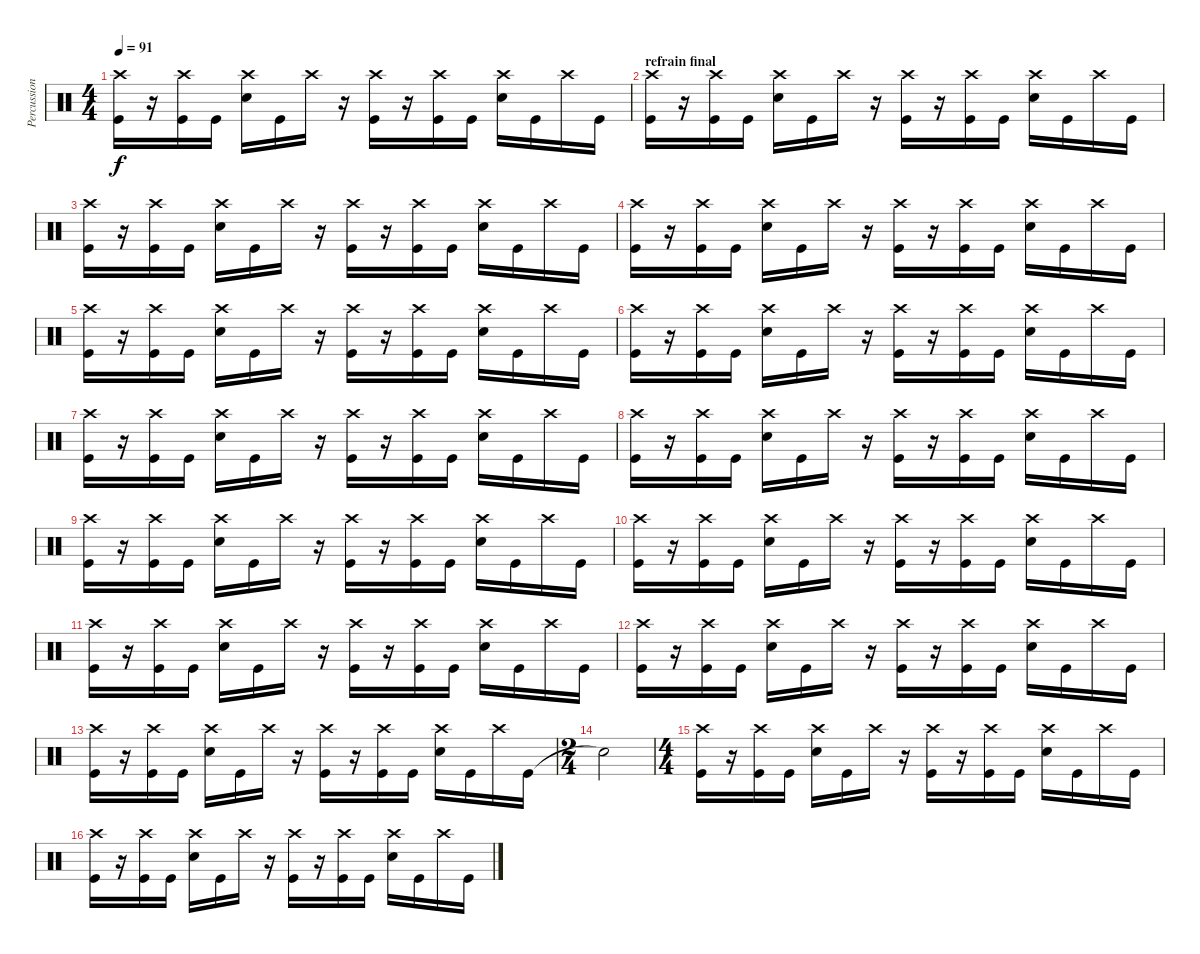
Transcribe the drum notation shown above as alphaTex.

\track ("Percussions (Nejo)" "Percussion") {instrument percussion}
\staff {score}
\articulation defaults
\ts (4 4)
\tempo 91
\clef neutral
\ks c
("Crash high (hit)" "Kick (hit)").16{dy f} r.16 ("Crash high (hit)" "Kick (hit)").16 "Kick (hit)".16 ("Crash high (hit)" "Electric Snare (hit)").16 "Kick (hit)".16 "Crash high (hit)".16 r.16 ("Crash high (hit)" "Kick (hit)").16 r.16 ("Crash high (hit)" "Kick (hit)").16 "Kick (hit)".16 ("Crash high (hit)" "Electric Snare (hit)").16 "Kick (hit)".16 "Crash high (hit)".16 "Kick (hit)".16 |
\section ("" "refrain final")
("Crash high (hit)" "Kick (hit)").16 r.16 ("Crash high (hit)" "Kick (hit)").16 "Kick (hit)".16 ("Crash high (hit)" "Electric Snare (hit)").16 "Kick (hit)".16 "Crash high (hit)".16 r.16 ("Crash high (hit)" "Kick (hit)").16 r.16 ("Crash high (hit)" "Kick (hit)").16 "Kick (hit)".16 ("Crash high (hit)" "Electric Snare (hit)").16 "Kick (hit)".16 "Crash high (hit)".16 "Kick (hit)".16 |
("Crash high (hit)" "Kick (hit)").16 r.16 ("Crash high (hit)" "Kick (hit)").16 "Kick (hit)".16 ("Crash high (hit)" "Electric Snare (hit)").16 "Kick (hit)".16 "Crash high (hit)".16 r.16 ("Crash high (hit)" "Kick (hit)").16 r.16 ("Crash high (hit)" "Kick (hit)").16 "Kick (hit)".16 ("Crash high (hit)" "Electric Snare (hit)").16 "Kick (hit)".16 "Crash high (hit)".16 "Kick (hit)".16 |
("Crash high (hit)" "Kick (hit)").16 r.16 ("Crash high (hit)" "Kick (hit)").16 "Kick (hit)".16 ("Crash high (hit)" "Electric Snare (hit)").16 "Kick (hit)".16 "Crash high (hit)".16 r.16 ("Crash high (hit)" "Kick (hit)").16 r.16 ("Crash high (hit)" "Kick (hit)").16 "Kick (hit)".16 ("Crash high (hit)" "Electric Snare (hit)").16 "Kick (hit)".16 "Crash high (hit)".16 "Kick (hit)".16 |
("Crash high (hit)" "Kick (hit)").16 r.16 ("Crash high (hit)" "Kick (hit)").16 "Kick (hit)".16 ("Crash high (hit)" "Electric Snare (hit)").16 "Kick (hit)".16 "Crash high (hit)".16 r.16 ("Crash high (hit)" "Kick (hit)").16 r.16 ("Crash high (hit)" "Kick (hit)").16 "Kick (hit)".16 ("Crash high (hit)" "Electric Snare (hit)").16 "Kick (hit)".16 "Crash high (hit)".16 "Kick (hit)".16 |
("Crash high (hit)" "Kick (hit)").16 r.16 ("Crash high (hit)" "Kick (hit)").16 "Kick (hit)".16 ("Crash high (hit)" "Electric Snare (hit)").16 "Kick (hit)".16 "Crash high (hit)".16 r.16 ("Crash high (hit)" "Kick (hit)").16 r.16 ("Crash high (hit)" "Kick (hit)").16 "Kick (hit)".16 ("Crash high (hit)" "Electric Snare (hit)").16 "Kick (hit)".16 "Crash high (hit)".16 "Kick (hit)".16 |
("Crash high (hit)" "Kick (hit)").16 r.16 ("Crash high (hit)" "Kick (hit)").16 "Kick (hit)".16 ("Crash high (hit)" "Electric Snare (hit)").16 "Kick (hit)".16 "Crash high (hit)".16 r.16 ("Crash high (hit)" "Kick (hit)").16 r.16 ("Crash high (hit)" "Kick (hit)").16 "Kick (hit)".16 ("Crash high (hit)" "Electric Snare (hit)").16 "Kick (hit)".16 "Crash high (hit)".16 "Kick (hit)".16 |
("Crash high (hit)" "Kick (hit)").16 r.16 ("Crash high (hit)" "Kick (hit)").16 "Kick (hit)".16 ("Crash high (hit)" "Electric Snare (hit)").16 "Kick (hit)".16 "Crash high (hit)".16 r.16 ("Crash high (hit)" "Kick (hit)").16 r.16 ("Crash high (hit)" "Kick (hit)").16 "Kick (hit)".16 ("Crash high (hit)" "Electric Snare (hit)").16 "Kick (hit)".16 "Crash high (hit)".16 "Kick (hit)".16 |
("Crash high (hit)" "Kick (hit)").16 r.16 ("Crash high (hit)" "Kick (hit)").16 "Kick (hit)".16 ("Crash high (hit)" "Electric Snare (hit)").16 "Kick (hit)".16 "Crash high (hit)".16 r.16 ("Crash high (hit)" "Kick (hit)").16 r.16 ("Crash high (hit)" "Kick (hit)").16 "Kick (hit)".16 ("Crash high (hit)" "Electric Snare (hit)").16 "Kick (hit)".16 "Crash high (hit)".16 "Kick (hit)".16 |
("Crash high (hit)" "Kick (hit)").16 r.16 ("Crash high (hit)" "Kick (hit)").16 "Kick (hit)".16 ("Crash high (hit)" "Electric Snare (hit)").16 "Kick (hit)".16 "Crash high (hit)".16 r.16 ("Crash high (hit)" "Kick (hit)").16 r.16 ("Crash high (hit)" "Kick (hit)").16 "Kick (hit)".16 ("Crash high (hit)" "Electric Snare (hit)").16 "Kick (hit)".16 "Crash high (hit)".16 "Kick (hit)".16 |
("Crash high (hit)" "Kick (hit)").16 r.16 ("Crash high (hit)" "Kick (hit)").16 "Kick (hit)".16 ("Crash high (hit)" "Electric Snare (hit)").16 "Kick (hit)".16 "Crash high (hit)".16 r.16 ("Crash high (hit)" "Kick (hit)").16 r.16 ("Crash high (hit)" "Kick (hit)").16 "Kick (hit)".16 ("Crash high (hit)" "Electric Snare (hit)").16 "Kick (hit)".16 "Crash high (hit)".16 "Kick (hit)".16 |
("Crash high (hit)" "Kick (hit)").16 r.16 ("Crash high (hit)" "Kick (hit)").16 "Kick (hit)".16 ("Crash high (hit)" "Electric Snare (hit)").16 "Kick (hit)".16 "Crash high (hit)".16 r.16 ("Crash high (hit)" "Kick (hit)").16 r.16 ("Crash high (hit)" "Kick (hit)").16 "Kick (hit)".16 ("Crash high (hit)" "Electric Snare (hit)").16 "Kick (hit)".16 "Crash high (hit)".16 "Kick (hit)".16 |
("Crash high (hit)" "Kick (hit)").16 r.16 ("Crash high (hit)" "Kick (hit)").16 "Kick (hit)".16 ("Crash high (hit)" "Electric Snare (hit)").16 "Kick (hit)".16 "Crash high (hit)".16 r.16 ("Crash high (hit)" "Kick (hit)").16 r.16 ("Crash high (hit)" "Kick (hit)").16 "Kick (hit)".16 ("Crash high (hit)" "Electric Snare (hit)").16 "Kick (hit)".16 "Crash high (hit)".16 "Kick (hit)".16 |
\ts (2 4)
"Snare (hit)"{t}.2 |
\ts (4 4)
("Crash high (hit)" "Kick (hit)").16 r.16 ("Crash high (hit)" "Kick (hit)").16 "Kick (hit)".16 ("Crash high (hit)" "Electric Snare (hit)").16 "Kick (hit)".16 "Crash high (hit)".16 r.16 ("Crash high (hit)" "Kick (hit)").16 r.16 ("Crash high (hit)" "Kick (hit)").16 "Kick (hit)".16 ("Crash high (hit)" "Electric Snare (hit)").16 "Kick (hit)".16 "Crash high (hit)".16 "Kick (hit)".16 |
("Crash high (hit)" "Kick (hit)").16 r.16 ("Crash high (hit)" "Kick (hit)").16 "Kick (hit)".16 ("Crash high (hit)" "Electric Snare (hit)").16 "Kick (hit)".16 "Crash high (hit)".16 r.16 ("Crash high (hit)" "Kick (hit)").16 r.16 ("Crash high (hit)" "Kick (hit)").16 "Kick (hit)".16 ("Crash high (hit)" "Electric Snare (hit)").16 "Kick (hit)".16 "Crash high (hit)".16 "Kick (hit)".16
